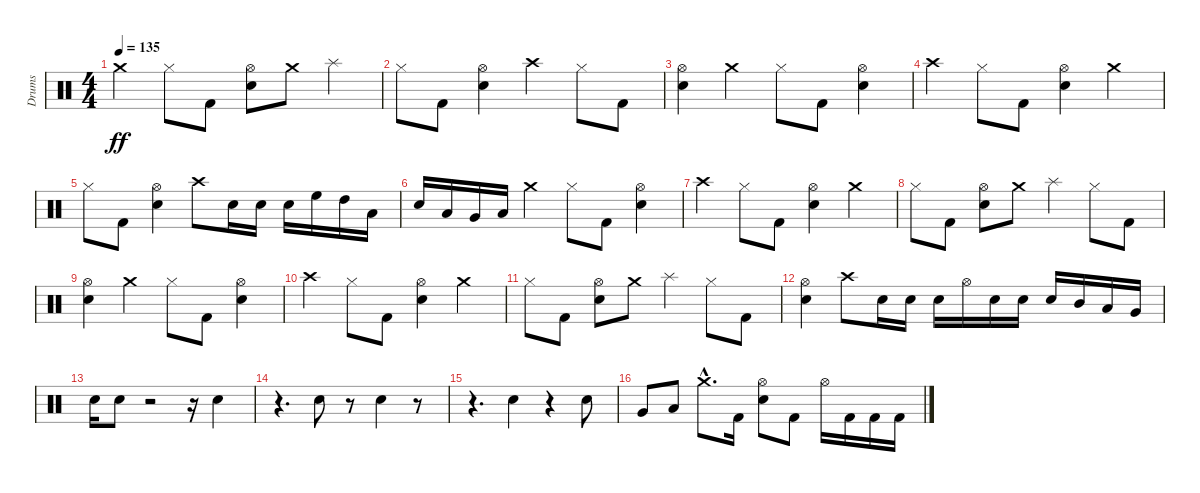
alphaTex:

\track ("Drums" "Drums") {instrument percussion}
\staff {score}
\articulation defaults
\ts (4 4)
\tempo 135
\clef neutral
\ks c "Crash medium (hit)".4{dy ff} "Hi-Hat (closed)".8 "Kick (hit) 2".8
("Electric Snare (hit)" "Hi-Hat (open)").8 "Crash medium (hit)".8 "Splash (hit)".4 |
"Hi-Hat (closed)".8 "Kick (hit) 2".8 ("Electric Snare (hit)" "Hi-Hat (open)").4 "Crash high (hit)".4 "Hi-Hat (closed)".8 "Kick (hit) 2".8 |
("Electric Snare (hit)" "Hi-Hat (open)").4 "Crash medium (hit)".4 "Hi-Hat (closed)".8 "Kick (hit) 2".8 ("Electric Snare (hit)" "Hi-Hat (open)").4 |
"Crash high (hit)".4 "Hi-Hat (closed)".8 "Kick (hit) 2".8 ("Electric Snare (hit)" "Hi-Hat (open)").4 "Crash medium (hit)".4 |
"Hi-Hat (closed)".8 "Kick (hit) 2".8 ("Electric Snare (hit)" "Hi-Hat (open)").4 "Crash high (hit)".8 "Electric Snare (hit)".16 "Electric Snare (hit)".16 "Electric Snare (hit)".16 "High Floor Tom (hit)".16 "High Tom (hit)".16 "Low Tom (hit)".16 |
"Electric Snare (hit)".16 "Low Tom (hit)".16 "Very Low Tom (hit)".16 "Low Floor Tom (hit)".16 "Crash medium (hit)".4 "Hi-Hat (closed)".8 "Kick (hit) 2".8 ("Electric Snare (hit)" "Hi-Hat (open)").4 |
"Crash high (hit)".4 "Hi-Hat (closed)".8 "Kick (hit) 2".8 ("Electric Snare (hit)" "Hi-Hat (open)").4 "Crash medium (hit)".4 |
"Hi-Hat (closed)".8 "Kick (hit) 2".8 ("Electric Snare (hit)" "Hi-Hat (open)").8 "Crash medium (hit)".8 "Splash (hit)".4 "Hi-Hat (closed)".8 "Kick (hit) 2".8 |
("Electric Snare (hit)" "Hi-Hat (open)").4 "Crash medium (hit)".4 "Hi-Hat (closed)".8 "Kick (hit) 2".8 ("Electric Snare (hit)" "Hi-Hat (open)").4 |
"Crash high (hit)".4 "Hi-Hat (closed)".8 "Kick (hit) 2".8 ("Electric Snare (hit)" "Hi-Hat (open)").4 "Crash medium (hit)".4 |
"Hi-Hat (closed)".8 "Kick (hit) 2".8 ("Electric Snare (hit)" "Hi-Hat (open)").8 "Crash medium (hit)".8 "Splash (hit)".4 "Hi-Hat (closed)".8 "Kick (hit) 2".8 |
("Electric Snare (hit)" "Hi-Hat (open)").4 "Crash high (hit)".8 "Electric Snare (hit)".16 "Electric Snare (hit)".16 "Electric Snare (hit)".16 "Hi-Hat (open)".16 "Electric Snare (hit)".16 "Electric Snare (hit)".16 "Electric Snare (hit)".16 "Mid Tom (hit)".16 "Low Tom (hit)".16 "Very Low Tom (hit)".16 |
"Electric Snare (hit)".16 "Electric Snare (hit)".8 r.2 r.16 "Electric Snare (hit)".4 |
r.4{d} "Electric Snare (hit)".8 r.8 "Electric Snare (hit)".4 r.8 |
r.4{d} "Electric Snare (hit)".4 r.4 "Electric Snare (hit)".8 |
"Very Low Tom (hit)".8 "Low Floor Tom (hit)".8 "Crash medium (hit)"{hac}.8{d} "Kick (hit) 2".16 ("Electric Snare (hit)" "Hi-Hat (open)").8 "Kick (hit) 2".8 "Hi-Hat (open)".16 "Kick (hit) 2".16 "Kick (hit) 2".16 "Kick (hit) 2".16
